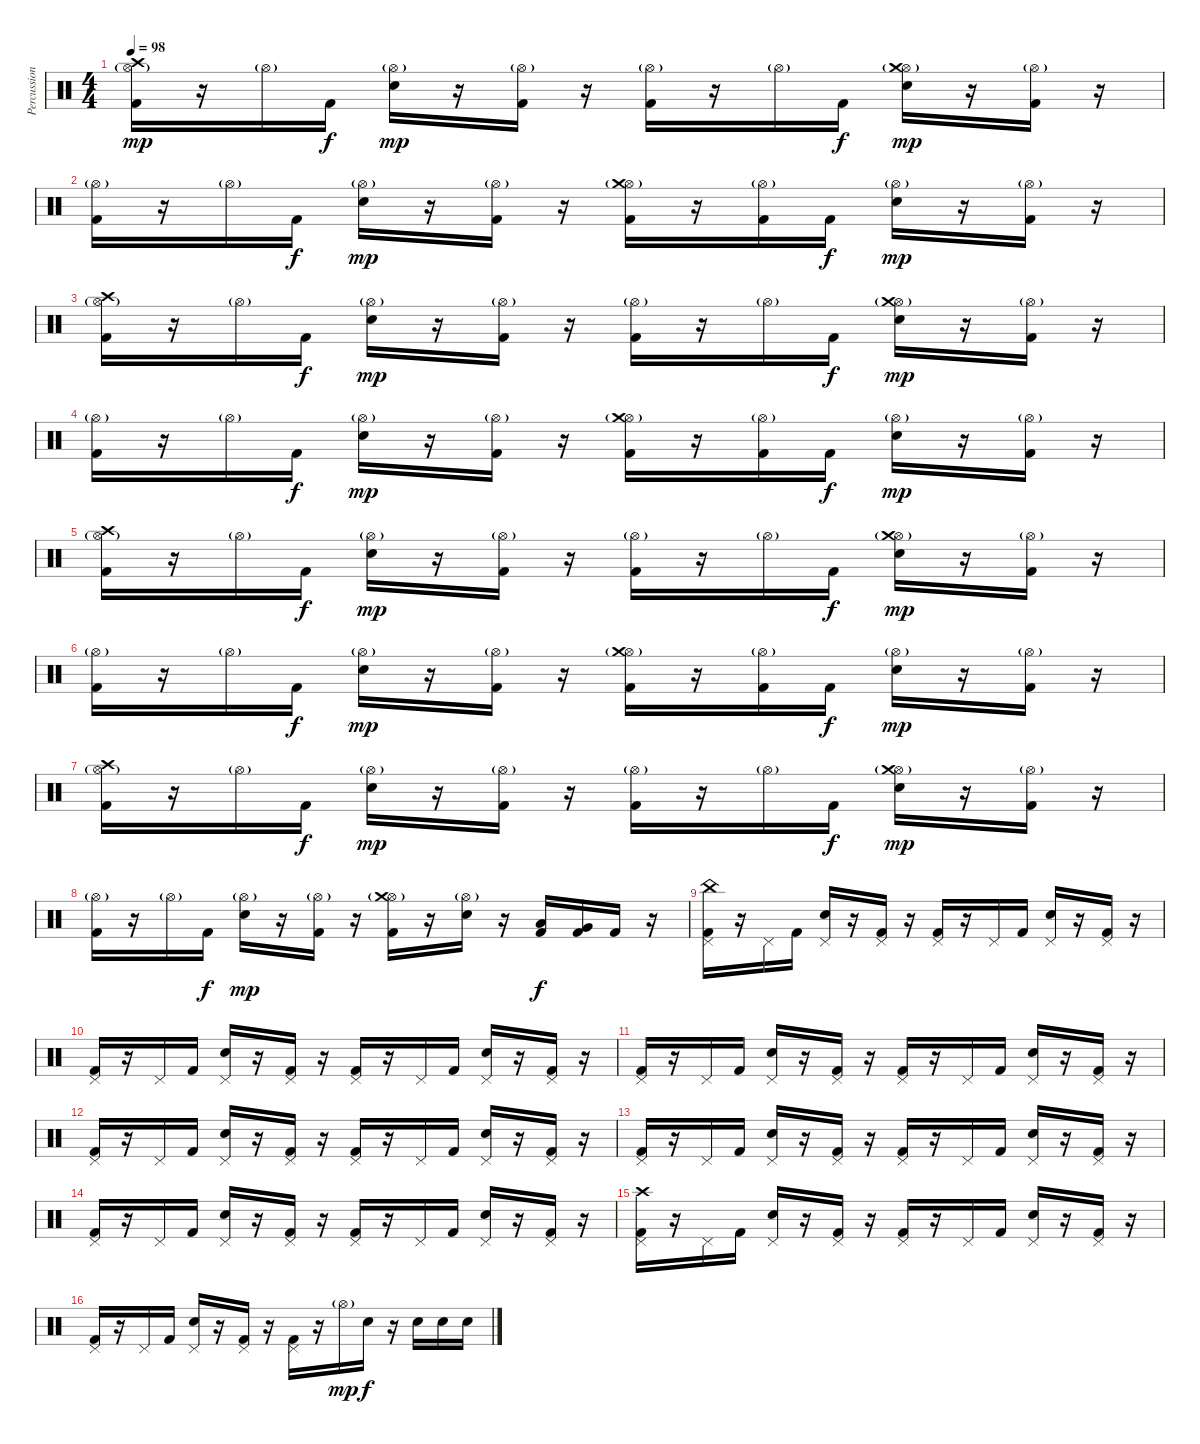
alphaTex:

\track ("Percussions" "Percussion") {instrument percussion}
\staff {score}
\articulation defaults
\ts (4 4)
\tempo 98
\clef neutral
\ks c
("Hi-Hat (open)"{g} "Crash high (hit)" "Kick (hit) 2").16{dy mp} r.16 "Hi-Hat (open)"{g}.16 "Kick (hit) 2".16{dy f} ("Hi-Hat (open)"{g} "Snare (hit) 2").16{dy mp} r.16 ("Hi-Hat (open)"{g} "Kick (hit) 2").16 r.16 ("Hi-Hat (open)"{g} "Kick (hit) 2").16 r.16 "Hi-Hat (open)"{g}.16 "Kick (hit) 2".16{dy f} ("Hi-Hat (open)"{g} "Crash medium (hit)" "Snare (hit) 2").16{dy mp} r.16 ("Hi-Hat (open)"{g} "Kick (hit) 2").16 r.16 |
("Hi-Hat (open)"{g} "Kick (hit) 2").16 r.16 "Hi-Hat (open)"{g}.16 "Kick (hit) 2".16{dy f} ("Hi-Hat (open)"{g} "Snare (hit) 2").16{dy mp} r.16 ("Hi-Hat (open)"{g} "Kick (hit) 2").16 r.16 ("Hi-Hat (open)"{g} "Crash medium (hit)" "Kick (hit) 2").16 r.16 ("Hi-Hat (open)"{g} "Kick (hit) 2").16 "Kick (hit) 2".16{dy f} ("Hi-Hat (open)"{g} "Snare (hit) 2").16{dy mp} r.16 ("Hi-Hat (open)"{g} "Kick (hit) 2").16 r.16 |
("Hi-Hat (open)"{g} "Crash high (hit)" "Kick (hit) 2").16 r.16 "Hi-Hat (open)"{g}.16 "Kick (hit) 2".16{dy f} ("Hi-Hat (open)"{g} "Snare (hit) 2").16{dy mp} r.16 ("Hi-Hat (open)"{g} "Kick (hit) 2").16 r.16 ("Hi-Hat (open)"{g} "Kick (hit) 2").16 r.16 "Hi-Hat (open)"{g}.16 "Kick (hit) 2".16{dy f} ("Hi-Hat (open)"{g} "Crash medium (hit)" "Snare (hit) 2").16{dy mp} r.16 ("Hi-Hat (open)"{g} "Kick (hit) 2").16 r.16 |
("Hi-Hat (open)"{g} "Kick (hit) 2").16 r.16 "Hi-Hat (open)"{g}.16 "Kick (hit) 2".16{dy f} ("Hi-Hat (open)"{g} "Snare (hit) 2").16{dy mp} r.16 ("Hi-Hat (open)"{g} "Kick (hit) 2").16 r.16 ("Hi-Hat (open)"{g} "Crash medium (hit)" "Kick (hit) 2").16 r.16 ("Hi-Hat (open)"{g} "Kick (hit) 2").16 "Kick (hit) 2".16{dy f} ("Hi-Hat (open)"{g} "Snare (hit) 2").16{dy mp} r.16 ("Hi-Hat (open)"{g} "Kick (hit) 2").16 r.16 |
("Hi-Hat (open)"{g} "Crash high (hit)" "Kick (hit) 2").16 r.16 "Hi-Hat (open)"{g}.16 "Kick (hit) 2".16{dy f} ("Hi-Hat (open)"{g} "Snare (hit) 2").16{dy mp} r.16 ("Hi-Hat (open)"{g} "Kick (hit) 2").16 r.16 ("Hi-Hat (open)"{g} "Kick (hit) 2").16 r.16 "Hi-Hat (open)"{g}.16 "Kick (hit) 2".16{dy f} ("Hi-Hat (open)"{g} "Crash medium (hit)" "Snare (hit) 2").16{dy mp} r.16 ("Hi-Hat (open)"{g} "Kick (hit) 2").16 r.16 |
("Hi-Hat (open)"{g} "Kick (hit) 2").16 r.16 "Hi-Hat (open)"{g}.16 "Kick (hit) 2".16{dy f} ("Hi-Hat (open)"{g} "Snare (hit) 2").16{dy mp} r.16 ("Hi-Hat (open)"{g} "Kick (hit) 2").16 r.16 ("Hi-Hat (open)"{g} "Crash medium (hit)" "Kick (hit) 2").16 r.16 ("Hi-Hat (open)"{g} "Kick (hit) 2").16 "Kick (hit) 2".16{dy f} ("Hi-Hat (open)"{g} "Snare (hit) 2").16{dy mp} r.16 ("Hi-Hat (open)"{g} "Kick (hit) 2").16 r.16 |
("Hi-Hat (open)"{g} "Crash high (hit)" "Kick (hit) 2").16 r.16 "Hi-Hat (open)"{g}.16 "Kick (hit) 2".16{dy f} ("Hi-Hat (open)"{g} "Snare (hit) 2").16{dy mp} r.16 ("Hi-Hat (open)"{g} "Kick (hit) 2").16 r.16 ("Hi-Hat (open)"{g} "Kick (hit) 2").16 r.16 "Hi-Hat (open)"{g}.16 "Kick (hit) 2".16{dy f} ("Hi-Hat (open)"{g} "Crash medium (hit)" "Snare (hit) 2").16{dy mp} r.16 ("Hi-Hat (open)"{g} "Kick (hit) 2").16 r.16 |
("Hi-Hat (open)"{g} "Kick (hit) 2").16 r.16 "Hi-Hat (open)"{g}.16 "Kick (hit) 2".16{dy f} ("Hi-Hat (open)"{g} "Snare (hit) 2").16{dy mp} r.16 ("Hi-Hat (open)"{g} "Kick (hit) 2").16 r.16 ("Hi-Hat (open)"{g} "Crash medium (hit)" "Kick (hit) 2").16 r.16 ("Hi-Hat (open)"{g} "Snare (hit) 2").16 r.16 ("Low Tom (hit)" "Kick (hit) 2").16{dy f} ("Very Low Tom (hit)" "Kick (hit) 2").16 "Kick (hit) 2".16 r.16 |
("Pedal Hi-Hat (hit)" "China (hit)" "Kick (hit) 2").16 r.16 "Pedal Hi-Hat (hit)".16 "Kick (hit) 2".16 ("Pedal Hi-Hat (hit)" "Snare (hit) 2").16 r.16 ("Pedal Hi-Hat (hit)" "Kick (hit) 2").16 r.16 ("Pedal Hi-Hat (hit)" "Kick (hit) 2").16 r.16 "Pedal Hi-Hat (hit)".16 "Kick (hit) 2".16 ("Pedal Hi-Hat (hit)" "Snare (hit) 2").16 r.16 ("Pedal Hi-Hat (hit)" "Kick (hit) 2").16 r.16 |
("Pedal Hi-Hat (hit)" "Kick (hit) 2").16 r.16 "Pedal Hi-Hat (hit)".16 "Kick (hit) 2".16 ("Pedal Hi-Hat (hit)" "Snare (hit) 2").16 r.16 ("Pedal Hi-Hat (hit)" "Kick (hit) 2").16 r.16 ("Pedal Hi-Hat (hit)" "Kick (hit) 2").16 r.16 "Pedal Hi-Hat (hit)".16 "Kick (hit) 2".16 ("Pedal Hi-Hat (hit)" "Snare (hit) 2").16 r.16 ("Pedal Hi-Hat (hit)" "Kick (hit) 2").16 r.16 |
("Pedal Hi-Hat (hit)" "Kick (hit) 2").16 r.16 "Pedal Hi-Hat (hit)".16 "Kick (hit) 2".16 ("Pedal Hi-Hat (hit)" "Snare (hit) 2").16 r.16 ("Pedal Hi-Hat (hit)" "Kick (hit) 2").16 r.16 ("Pedal Hi-Hat (hit)" "Kick (hit) 2").16 r.16 "Pedal Hi-Hat (hit)".16 "Kick (hit) 2".16 ("Pedal Hi-Hat (hit)" "Snare (hit) 2").16 r.16 ("Pedal Hi-Hat (hit)" "Kick (hit) 2").16 r.16 |
("Pedal Hi-Hat (hit)" "Kick (hit) 2").16 r.16 "Pedal Hi-Hat (hit)".16 "Kick (hit) 2".16 ("Pedal Hi-Hat (hit)" "Snare (hit) 2").16 r.16 ("Pedal Hi-Hat (hit)" "Kick (hit) 2").16 r.16 ("Pedal Hi-Hat (hit)" "Kick (hit) 2").16 r.16 "Pedal Hi-Hat (hit)".16 "Kick (hit) 2".16 ("Pedal Hi-Hat (hit)" "Snare (hit) 2").16 r.16 ("Pedal Hi-Hat (hit)" "Kick (hit) 2").16 r.16 |
("Pedal Hi-Hat (hit)" "Kick (hit) 2").16 r.16 "Pedal Hi-Hat (hit)".16 "Kick (hit) 2".16 ("Pedal Hi-Hat (hit)" "Snare (hit) 2").16 r.16 ("Pedal Hi-Hat (hit)" "Kick (hit) 2").16 r.16 ("Pedal Hi-Hat (hit)" "Kick (hit) 2").16 r.16 "Pedal Hi-Hat (hit)".16 "Kick (hit) 2".16 ("Pedal Hi-Hat (hit)" "Snare (hit) 2").16 r.16 ("Pedal Hi-Hat (hit)" "Kick (hit) 2").16 r.16 |
("Pedal Hi-Hat (hit)" "Kick (hit) 2").16 r.16 "Pedal Hi-Hat (hit)".16 "Kick (hit) 2".16 ("Pedal Hi-Hat (hit)" "Snare (hit) 2").16 r.16 ("Pedal Hi-Hat (hit)" "Kick (hit) 2").16 r.16 ("Pedal Hi-Hat (hit)" "Kick (hit) 2").16 r.16 "Pedal Hi-Hat (hit)".16 "Kick (hit) 2".16 ("Pedal Hi-Hat (hit)" "Snare (hit) 2").16 r.16 ("Pedal Hi-Hat (hit)" "Kick (hit) 2").16 r.16 |
("Pedal Hi-Hat (hit)" "Crash high (hit)" "Kick (hit) 2").16 r.16 "Pedal Hi-Hat (hit)".16 "Kick (hit) 2".16 ("Pedal Hi-Hat (hit)" "Snare (hit) 2").16 r.16 ("Pedal Hi-Hat (hit)" "Kick (hit) 2").16 r.16 ("Pedal Hi-Hat (hit)" "Kick (hit) 2").16 r.16 "Pedal Hi-Hat (hit)".16 "Kick (hit) 2".16 ("Pedal Hi-Hat (hit)" "Snare (hit) 2").16 r.16 ("Pedal Hi-Hat (hit)" "Kick (hit) 2").16 r.16 |
("Pedal Hi-Hat (hit)" "Kick (hit) 2").16 r.16 "Pedal Hi-Hat (hit)".16 "Kick (hit) 2".16 ("Pedal Hi-Hat (hit)" "Snare (hit) 2").16 r.16 ("Pedal Hi-Hat (hit)" "Kick (hit) 2").16 r.16 ("Pedal Hi-Hat (hit)" "Kick (hit) 2").16 r.16 "Hi-Hat (open)"{g}.16{dy mp} "Snare (hit) 2".16{dy f} r.16 "Snare (hit) 2".16 "Snare (hit) 2".16 "Snare (hit) 2".16
